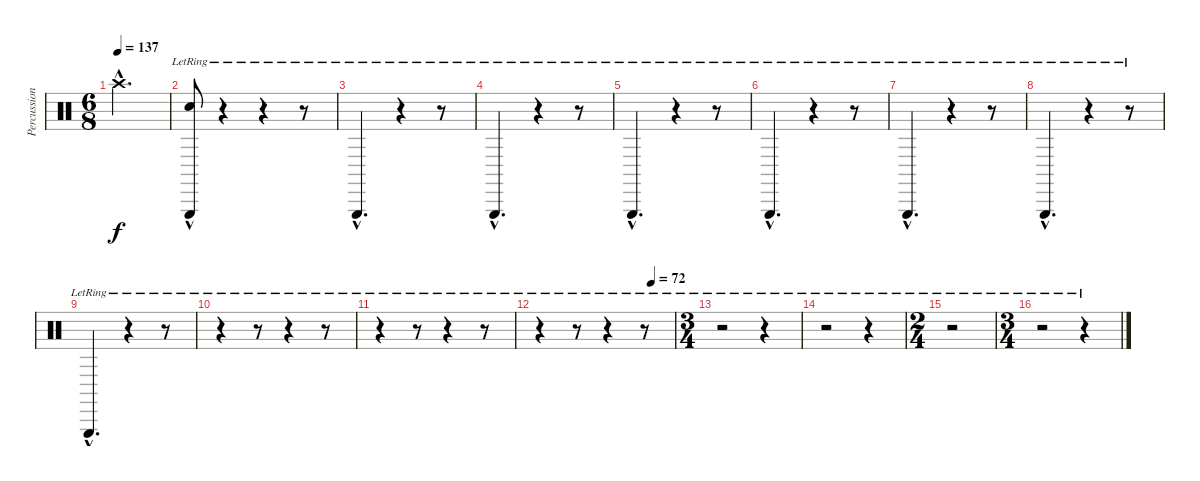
\track ("Percussion" "Percussion") {instrument percussion}
\staff {score}
\articulation defaults
\ts (6 8)
\tempo 137
\clef neutral
\ks c "Crash high (hit)"{hac t}.2{d dy f}
|
("Triangle (hit)"{hac lr} "Snare (hit)").8 r.4 r.4 r.8 |
"Triangle (hit)"{hac lr}.4{d} r.4 r.8 |
"Triangle (hit)"{hac lr}.4{d} r.4 r.8 |
"Triangle (hit)"{hac lr}.4{d} r.4 r.8 |
"Triangle (hit)"{hac lr}.4{d} r.4 r.8 |
"Triangle (hit)"{hac lr}.4{d} r.4 r.8 |
"Triangle (hit)"{hac lr}.4{d} r.4 r.8 |
"Triangle (hit)"{hac lr}.4{d} r.4 r.8 |
r.4 r.8 r.4 r.8 |
r.4 r.8 r.4 r.8 |
\tempo (72 0.8333333333333334)
r.4 r.8 r.4 r.8 |
\ts (3 4)
r.2 r.4 |
r.2 r.4 |
\ts (2 4)
r.2 |
\ts (3 4)
r.2 r.4
